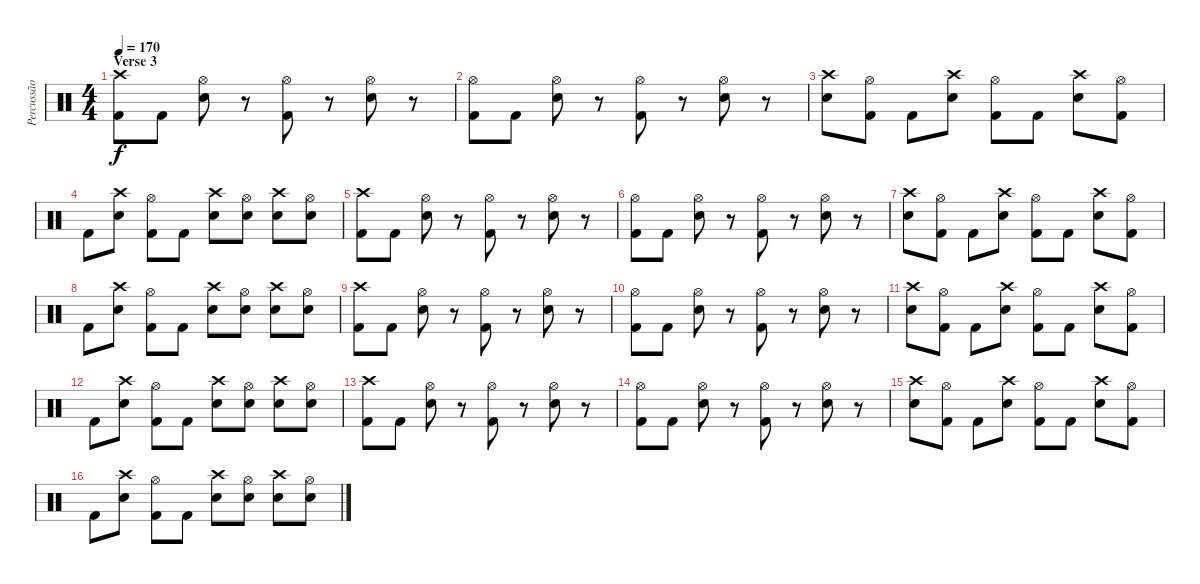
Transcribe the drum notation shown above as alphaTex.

\track ("Percussão" "Percussão") {instrument percussion}
\staff {score}
\articulation defaults
\ts (4 4)
\section ("" "Verse 3")
\tempo 170
\clef neutral
\ks c
("Crash high (hit)" "Kick (hit) 2").8{dy f} "Kick (hit) 2".8 ("Hi-Hat (open)" "Snare (hit) 2").8 r.8 ("Hi-Hat (open)" "Kick (hit) 2").8 r.8 ("Hi-Hat (open)" "Snare (hit) 2").8 r.8 |
("Hi-Hat (open)" "Kick (hit) 2").8 "Kick (hit) 2".8 ("Hi-Hat (open)" "Snare (hit) 2").8 r.8 ("Hi-Hat (open)" "Kick (hit) 2").8 r.8 ("Hi-Hat (open)" "Snare (hit) 2").8 r.8 |
("Crash high (hit)" "Snare (hit) 2").8 ("Hi-Hat (open)" "Kick (hit) 2").8 "Kick (hit) 2".8 ("Crash high (hit)" "Snare (hit) 2").8 ("Hi-Hat (open)" "Kick (hit) 2").8 "Kick (hit) 2".8 ("Crash high (hit)" "Snare (hit) 2").8 ("Hi-Hat (open)" "Kick (hit) 2").8 |
"Kick (hit) 2".8 ("Crash high (hit)" "Snare (hit) 2").8 ("Hi-Hat (open)" "Kick (hit) 2").8 "Kick (hit) 2".8 ("Crash high (hit)" "Snare (hit) 2").8 ("Hi-Hat (open)" "Snare (hit) 2").8 ("Crash high (hit)" "Snare (hit) 2").8 ("Hi-Hat (open)" "Snare (hit) 2").8 |
("Crash high (hit)" "Kick (hit) 2").8 "Kick (hit) 2".8 ("Hi-Hat (open)" "Snare (hit) 2").8 r.8 ("Hi-Hat (open)" "Kick (hit) 2").8 r.8 ("Hi-Hat (open)" "Snare (hit) 2").8 r.8 |
("Hi-Hat (open)" "Kick (hit) 2").8 "Kick (hit) 2".8 ("Hi-Hat (open)" "Snare (hit) 2").8 r.8 ("Hi-Hat (open)" "Kick (hit) 2").8 r.8 ("Hi-Hat (open)" "Snare (hit) 2").8 r.8 |
("Crash high (hit)" "Snare (hit) 2").8 ("Hi-Hat (open)" "Kick (hit) 2").8 "Kick (hit) 2".8 ("Crash high (hit)" "Snare (hit) 2").8 ("Hi-Hat (open)" "Kick (hit) 2").8 "Kick (hit) 2".8 ("Crash high (hit)" "Snare (hit) 2").8 ("Hi-Hat (open)" "Kick (hit) 2").8 |
"Kick (hit) 2".8 ("Crash high (hit)" "Snare (hit) 2").8 ("Hi-Hat (open)" "Kick (hit) 2").8 "Kick (hit) 2".8 ("Crash high (hit)" "Snare (hit) 2").8 ("Hi-Hat (open)" "Snare (hit) 2").8 ("Crash high (hit)" "Snare (hit) 2").8 ("Hi-Hat (open)" "Snare (hit) 2").8 |
("Crash high (hit)" "Kick (hit) 2").8 "Kick (hit) 2".8 ("Hi-Hat (open)" "Snare (hit) 2").8 r.8 ("Hi-Hat (open)" "Kick (hit) 2").8 r.8 ("Hi-Hat (open)" "Snare (hit) 2").8 r.8 |
("Hi-Hat (open)" "Kick (hit) 2").8 "Kick (hit) 2".8 ("Hi-Hat (open)" "Snare (hit) 2").8 r.8 ("Hi-Hat (open)" "Kick (hit) 2").8 r.8 ("Hi-Hat (open)" "Snare (hit) 2").8 r.8 |
("Crash high (hit)" "Snare (hit) 2").8 ("Hi-Hat (open)" "Kick (hit) 2").8 "Kick (hit) 2".8 ("Crash high (hit)" "Snare (hit) 2").8 ("Hi-Hat (open)" "Kick (hit) 2").8 "Kick (hit) 2".8 ("Crash high (hit)" "Snare (hit) 2").8 ("Hi-Hat (open)" "Kick (hit) 2").8 |
"Kick (hit) 2".8 ("Crash high (hit)" "Snare (hit) 2").8 ("Hi-Hat (open)" "Kick (hit) 2").8 "Kick (hit) 2".8 ("Crash high (hit)" "Snare (hit) 2").8 ("Hi-Hat (open)" "Snare (hit) 2").8 ("Crash high (hit)" "Snare (hit) 2").8 ("Hi-Hat (open)" "Snare (hit) 2").8 |
("Crash high (hit)" "Kick (hit) 2").8 "Kick (hit) 2".8 ("Hi-Hat (open)" "Snare (hit) 2").8 r.8 ("Hi-Hat (open)" "Kick (hit) 2").8 r.8 ("Hi-Hat (open)" "Snare (hit) 2").8 r.8 |
("Hi-Hat (open)" "Kick (hit) 2").8 "Kick (hit) 2".8 ("Hi-Hat (open)" "Snare (hit) 2").8 r.8 ("Hi-Hat (open)" "Kick (hit) 2").8 r.8 ("Hi-Hat (open)" "Snare (hit) 2").8 r.8 |
("Crash high (hit)" "Snare (hit) 2").8 ("Hi-Hat (open)" "Kick (hit) 2").8 "Kick (hit) 2".8 ("Crash high (hit)" "Snare (hit) 2").8 ("Hi-Hat (open)" "Kick (hit) 2").8 "Kick (hit) 2".8 ("Crash high (hit)" "Snare (hit) 2").8 ("Hi-Hat (open)" "Kick (hit) 2").8 |
"Kick (hit) 2".8 ("Crash high (hit)" "Snare (hit) 2").8 ("Hi-Hat (open)" "Kick (hit) 2").8 "Kick (hit) 2".8 ("Crash high (hit)" "Snare (hit) 2").8 ("Hi-Hat (open)" "Snare (hit) 2").8 ("Crash high (hit)" "Snare (hit) 2").8 ("Hi-Hat (open)" "Snare (hit) 2").8
